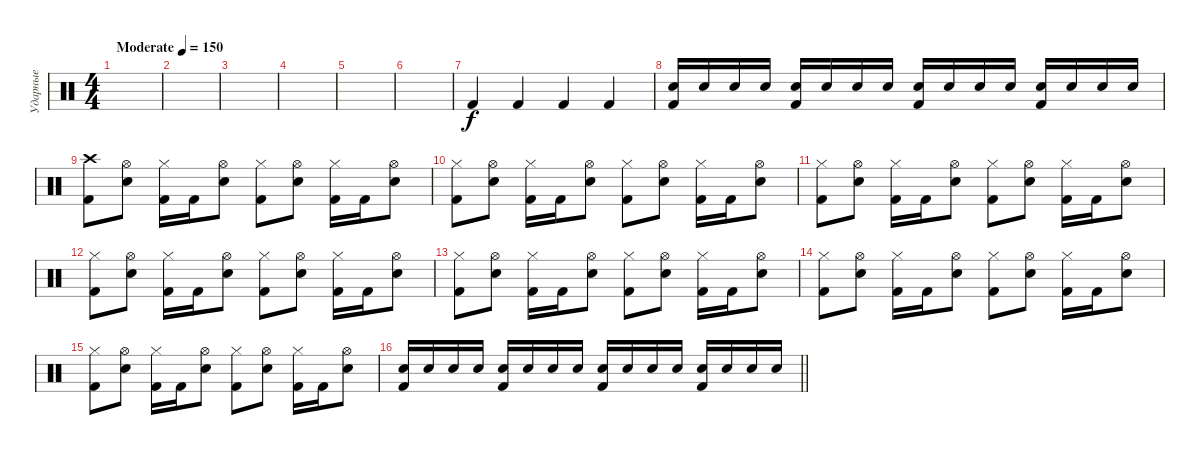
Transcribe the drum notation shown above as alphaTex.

\track ("Ударные" "Ударные") {instrument percussion}
\staff {score}
\articulation defaults
\ts (4 4)
\tempo (150 "Moderate")
\clef neutral
\ks c
|
|
|
|
|
|
"Kick (hit) 2".4{volume 7} "Kick (hit) 2".4 "Kick (hit) 2".4 "Kick (hit) 2".4 |
("Kick (hit) 2" "Snare (hit) 2").16{volume 13} "Snare (hit) 2".16 "Snare (hit) 2".16 "Snare (hit) 2".16 ("Kick (hit) 2" "Snare (hit) 2").16 "Snare (hit) 2".16 "Snare (hit) 2".16 "Snare (hit) 2".16 ("Kick (hit) 2" "Snare (hit) 2").16 "Snare (hit) 2".16 "Snare (hit) 2".16 "Snare (hit) 2".16 ("Kick (hit) 2" "Snare (hit) 2").16 "Snare (hit) 2".16 "Snare (hit) 2".16 "Snare (hit) 2".16 |
("Crash high (hit)" "Kick (hit) 2").8 ("Hi-Hat (open)" "Snare (hit) 2").8 ("Hi-Hat (closed)" "Kick (hit) 2").16 "Kick (hit) 2".16 ("Hi-Hat (open)" "Snare (hit) 2").8 ("Hi-Hat (closed)" "Kick (hit) 2").8 ("Hi-Hat (open)" "Snare (hit) 2").8 ("Hi-Hat (closed)" "Kick (hit) 2").16 "Kick (hit) 2".16 ("Hi-Hat (open)" "Snare (hit) 2").8 |
("Hi-Hat (closed)" "Kick (hit) 2").8 ("Hi-Hat (open)" "Snare (hit) 2").8 ("Hi-Hat (closed)" "Kick (hit) 2").16 "Kick (hit) 2".16 ("Hi-Hat (open)" "Snare (hit) 2").8 ("Hi-Hat (closed)" "Kick (hit) 2").8 ("Hi-Hat (open)" "Snare (hit) 2").8 ("Hi-Hat (closed)" "Kick (hit) 2").16 "Kick (hit) 2".16 ("Hi-Hat (open)" "Snare (hit) 2").8 |
("Hi-Hat (closed)" "Kick (hit) 2").8 ("Hi-Hat (open)" "Snare (hit) 2").8 ("Hi-Hat (closed)" "Kick (hit) 2").16 "Kick (hit) 2".16 ("Hi-Hat (open)" "Snare (hit) 2").8 ("Hi-Hat (closed)" "Kick (hit) 2").8 ("Hi-Hat (open)" "Snare (hit) 2").8 ("Hi-Hat (closed)" "Kick (hit) 2").16 "Kick (hit) 2".16 ("Hi-Hat (open)" "Snare (hit) 2").8 |
("Hi-Hat (closed)" "Kick (hit) 2").8 ("Hi-Hat (open)" "Snare (hit) 2").8 ("Hi-Hat (closed)" "Kick (hit) 2").16 "Kick (hit) 2".16 ("Hi-Hat (open)" "Snare (hit) 2").8 ("Hi-Hat (closed)" "Kick (hit) 2").8 ("Hi-Hat (open)" "Snare (hit) 2").8 ("Hi-Hat (closed)" "Kick (hit) 2").16 "Kick (hit) 2".16 ("Hi-Hat (open)" "Snare (hit) 2").8 |
("Hi-Hat (closed)" "Kick (hit) 2").8 ("Hi-Hat (open)" "Snare (hit) 2").8 ("Hi-Hat (closed)" "Kick (hit) 2").16 "Kick (hit) 2".16 ("Hi-Hat (open)" "Snare (hit) 2").8 ("Hi-Hat (closed)" "Kick (hit) 2").8 ("Hi-Hat (open)" "Snare (hit) 2").8 ("Hi-Hat (closed)" "Kick (hit) 2").16 "Kick (hit) 2".16 ("Hi-Hat (open)" "Snare (hit) 2").8 |
("Hi-Hat (closed)" "Kick (hit) 2").8 ("Hi-Hat (open)" "Snare (hit) 2").8 ("Hi-Hat (closed)" "Kick (hit) 2").16 "Kick (hit) 2".16 ("Hi-Hat (open)" "Snare (hit) 2").8 ("Hi-Hat (closed)" "Kick (hit) 2").8 ("Hi-Hat (open)" "Snare (hit) 2").8 ("Hi-Hat (closed)" "Kick (hit) 2").16 "Kick (hit) 2".16 ("Hi-Hat (open)" "Snare (hit) 2").8 |
("Hi-Hat (closed)" "Kick (hit) 2").8 ("Hi-Hat (open)" "Snare (hit) 2").8 ("Hi-Hat (closed)" "Kick (hit) 2").16 "Kick (hit) 2".16 ("Hi-Hat (open)" "Snare (hit) 2").8 ("Hi-Hat (closed)" "Kick (hit) 2").8 ("Hi-Hat (open)" "Snare (hit) 2").8 ("Hi-Hat (closed)" "Kick (hit) 2").16 "Kick (hit) 2".16 ("Hi-Hat (open)" "Snare (hit) 2").8 |
\barLineRight lightlight
("Kick (hit) 2" "Snare (hit) 2").16 "Snare (hit) 2".16 "Snare (hit) 2".16 "Snare (hit) 2".16 ("Kick (hit) 2" "Snare (hit) 2").16 "Snare (hit) 2".16 "Snare (hit) 2".16 "Snare (hit) 2".16 ("Kick (hit) 2" "Snare (hit) 2").16 "Snare (hit) 2".16 "Snare (hit) 2".16 "Snare (hit) 2".16 ("Kick (hit) 2" "Snare (hit) 2").16 "Snare (hit) 2".16 "Snare (hit) 2".16 "Snare (hit) 2".16
